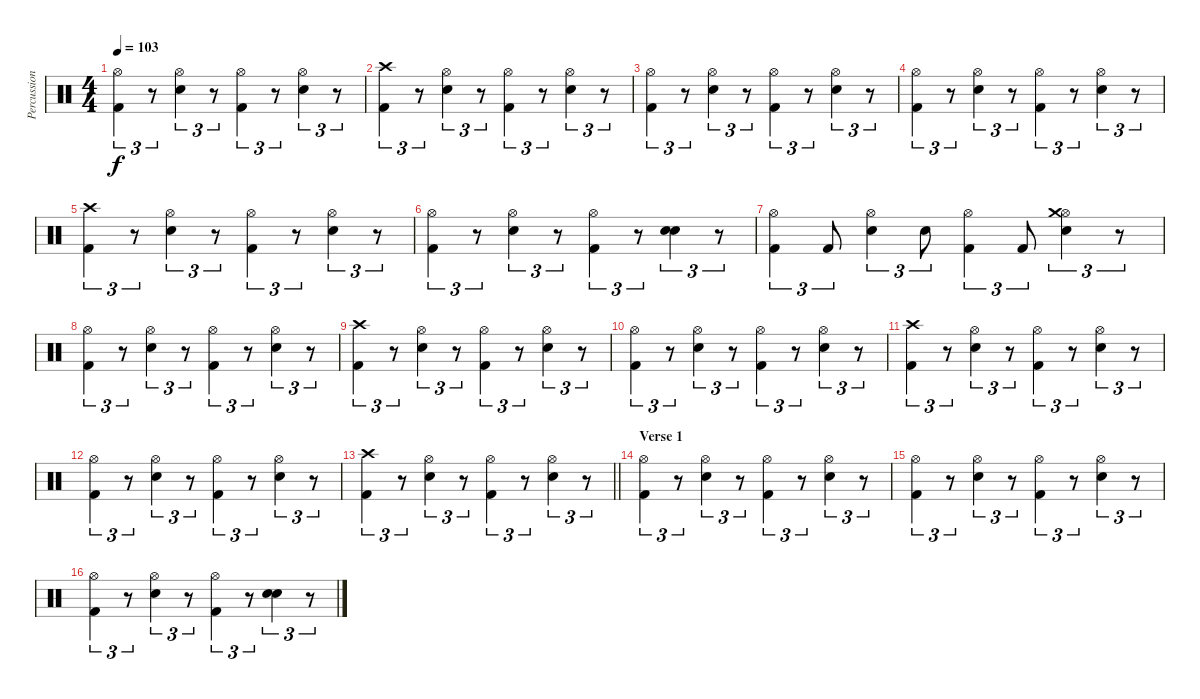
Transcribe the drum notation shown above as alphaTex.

\track ("Percussion" "Percussion") {instrument percussion}
\staff {score}
\articulation defaults
\ts (4 4)
\tempo 103
\clef neutral
\ks c
("Hi-Hat (open)" "Kick (hit) 2").4{tu (3 2) dy f} r.8{tu (3 2)} ("Hi-Hat (open)" "Electric Snare (hit)").4{tu (3 2)} r.8{tu (3 2)} ("Hi-Hat (open)" "Kick (hit) 2").4{tu (3 2)} r.8{tu (3 2)} ("Hi-Hat (open)" "Electric Snare (hit)").4{tu (3 2)} r.8{tu (3 2)} |
("Crash high (hit)" "Kick (hit) 2").4{tu (3 2)} r.8{tu (3 2)} ("Hi-Hat (open)" "Electric Snare (hit)").4{tu (3 2)} r.8{tu (3 2)} ("Hi-Hat (open)" "Kick (hit) 2").4{tu (3 2)} r.8{tu (3 2)} ("Hi-Hat (open)" "Electric Snare (hit)").4{tu (3 2)} r.8{tu (3 2)} |
("Hi-Hat (open)" "Kick (hit) 2").4{tu (3 2)} r.8{tu (3 2)} ("Hi-Hat (open)" "Electric Snare (hit)").4{tu (3 2)} r.8{tu (3 2)} ("Hi-Hat (open)" "Kick (hit) 2").4{tu (3 2)} r.8{tu (3 2)} ("Hi-Hat (open)" "Electric Snare (hit)").4{tu (3 2)} r.8{tu (3 2)} |
("Hi-Hat (open)" "Kick (hit) 2").4{tu (3 2)} r.8{tu (3 2)} ("Hi-Hat (open)" "Electric Snare (hit)").4{tu (3 2)} r.8{tu (3 2)} ("Hi-Hat (open)" "Kick (hit) 2").4{tu (3 2)} r.8{tu (3 2)} ("Hi-Hat (open)" "Electric Snare (hit)").4{tu (3 2)} r.8{tu (3 2)} |
("Crash high (hit)" "Kick (hit) 2").4{tu (3 2)} r.8{tu (3 2)} ("Hi-Hat (open)" "Electric Snare (hit)").4{tu (3 2)} r.8{tu (3 2)} ("Hi-Hat (open)" "Kick (hit) 2").4{tu (3 2)} r.8{tu (3 2)} ("Hi-Hat (open)" "Electric Snare (hit)").4{tu (3 2)} r.8{tu (3 2)} |
("Hi-Hat (open)" "Kick (hit) 2").4{tu (3 2)} r.8{tu (3 2)} ("Hi-Hat (open)" "Electric Snare (hit)").4{tu (3 2)} r.8{tu (3 2)} ("Hi-Hat (open)" "Kick (hit) 2").4{tu (3 2)} r.8{tu (3 2)} ("Electric Snare (hit)" "Electric Snare (hit)").4{tu (3 2)} r.8{tu (3 2)} |
("Kick (hit) 2" "Hi-Hat (open)").4{tu (3 2)} "Kick (hit) 2".8{tu (3 2)} ("Electric Snare (hit)" "Hi-Hat (open)").4{tu (3 2)} "Electric Snare (hit)".8{tu (3 2)} ("Kick (hit) 2" "Hi-Hat (open)").4{tu (3 2)} "Kick (hit) 2".8{tu (3 2)} ("Electric Snare (hit)" "Hi-Hat (open)" "Crash medium (hit)").4{tu (3 2)} r.8{tu (3 2)} |
("Hi-Hat (open)" "Kick (hit) 2").4{tu (3 2)} r.8{tu (3 2)} ("Hi-Hat (open)" "Electric Snare (hit)").4{tu (3 2)} r.8{tu (3 2)} ("Hi-Hat (open)" "Kick (hit) 2").4{tu (3 2)} r.8{tu (3 2)} ("Hi-Hat (open)" "Electric Snare (hit)").4{tu (3 2)} r.8{tu (3 2)} |
("Crash high (hit)" "Kick (hit) 2").4{tu (3 2)} r.8{tu (3 2)} ("Hi-Hat (open)" "Electric Snare (hit)").4{tu (3 2)} r.8{tu (3 2)} ("Hi-Hat (open)" "Kick (hit) 2").4{tu (3 2)} r.8{tu (3 2)} ("Hi-Hat (open)" "Electric Snare (hit)").4{tu (3 2)} r.8{tu (3 2)} |
("Hi-Hat (open)" "Kick (hit) 2").4{tu (3 2)} r.8{tu (3 2)} ("Hi-Hat (open)" "Electric Snare (hit)").4{tu (3 2)} r.8{tu (3 2)} ("Hi-Hat (open)" "Kick (hit) 2").4{tu (3 2)} r.8{tu (3 2)} ("Hi-Hat (open)" "Electric Snare (hit)").4{tu (3 2)} r.8{tu (3 2)} |
("Crash high (hit)" "Kick (hit) 2").4{tu (3 2)} r.8{tu (3 2)} ("Hi-Hat (open)" "Electric Snare (hit)").4{tu (3 2)} r.8{tu (3 2)} ("Hi-Hat (open)" "Kick (hit) 2").4{tu (3 2)} r.8{tu (3 2)} ("Hi-Hat (open)" "Electric Snare (hit)").4{tu (3 2)} r.8{tu (3 2)} |
("Hi-Hat (open)" "Kick (hit) 2").4{tu (3 2)} r.8{tu (3 2)} ("Hi-Hat (open)" "Electric Snare (hit)").4{tu (3 2)} r.8{tu (3 2)} ("Hi-Hat (open)" "Kick (hit) 2").4{tu (3 2)} r.8{tu (3 2)} ("Hi-Hat (open)" "Electric Snare (hit)").4{tu (3 2)} r.8{tu (3 2)} |
\barLineRight lightlight
("Crash high (hit)" "Kick (hit) 2").4{tu (3 2)} r.8{tu (3 2)} ("Hi-Hat (open)" "Electric Snare (hit)").4{tu (3 2)} r.8{tu (3 2)} ("Hi-Hat (open)" "Kick (hit) 2").4{tu (3 2)} r.8{tu (3 2)} ("Hi-Hat (open)" "Electric Snare (hit)").4{tu (3 2)} r.8{tu (3 2)} |
\section ("" "Verse 1")
("Hi-Hat (open)" "Kick (hit) 2").4{tu (3 2)} r.8{tu (3 2)} ("Hi-Hat (open)" "Electric Snare (hit)").4{tu (3 2)} r.8{tu (3 2)} ("Hi-Hat (open)" "Kick (hit) 2").4{tu (3 2)} r.8{tu (3 2)} ("Hi-Hat (open)" "Electric Snare (hit)").4{tu (3 2)} r.8{tu (3 2)} |
("Hi-Hat (open)" "Kick (hit) 2").4{tu (3 2)} r.8{tu (3 2)} ("Hi-Hat (open)" "Electric Snare (hit)").4{tu (3 2)} r.8{tu (3 2)} ("Hi-Hat (open)" "Kick (hit) 2").4{tu (3 2)} r.8{tu (3 2)} ("Hi-Hat (open)" "Electric Snare (hit)").4{tu (3 2)} r.8{tu (3 2)} |
("Hi-Hat (open)" "Kick (hit) 2").4{tu (3 2)} r.8{tu (3 2)} ("Hi-Hat (open)" "Electric Snare (hit)").4{tu (3 2)} r.8{tu (3 2)} ("Hi-Hat (open)" "Kick (hit) 2").4{tu (3 2)} r.8{tu (3 2)} ("Electric Snare (hit)" "Electric Snare (hit)").4{tu (3 2)} r.8{tu (3 2)}
